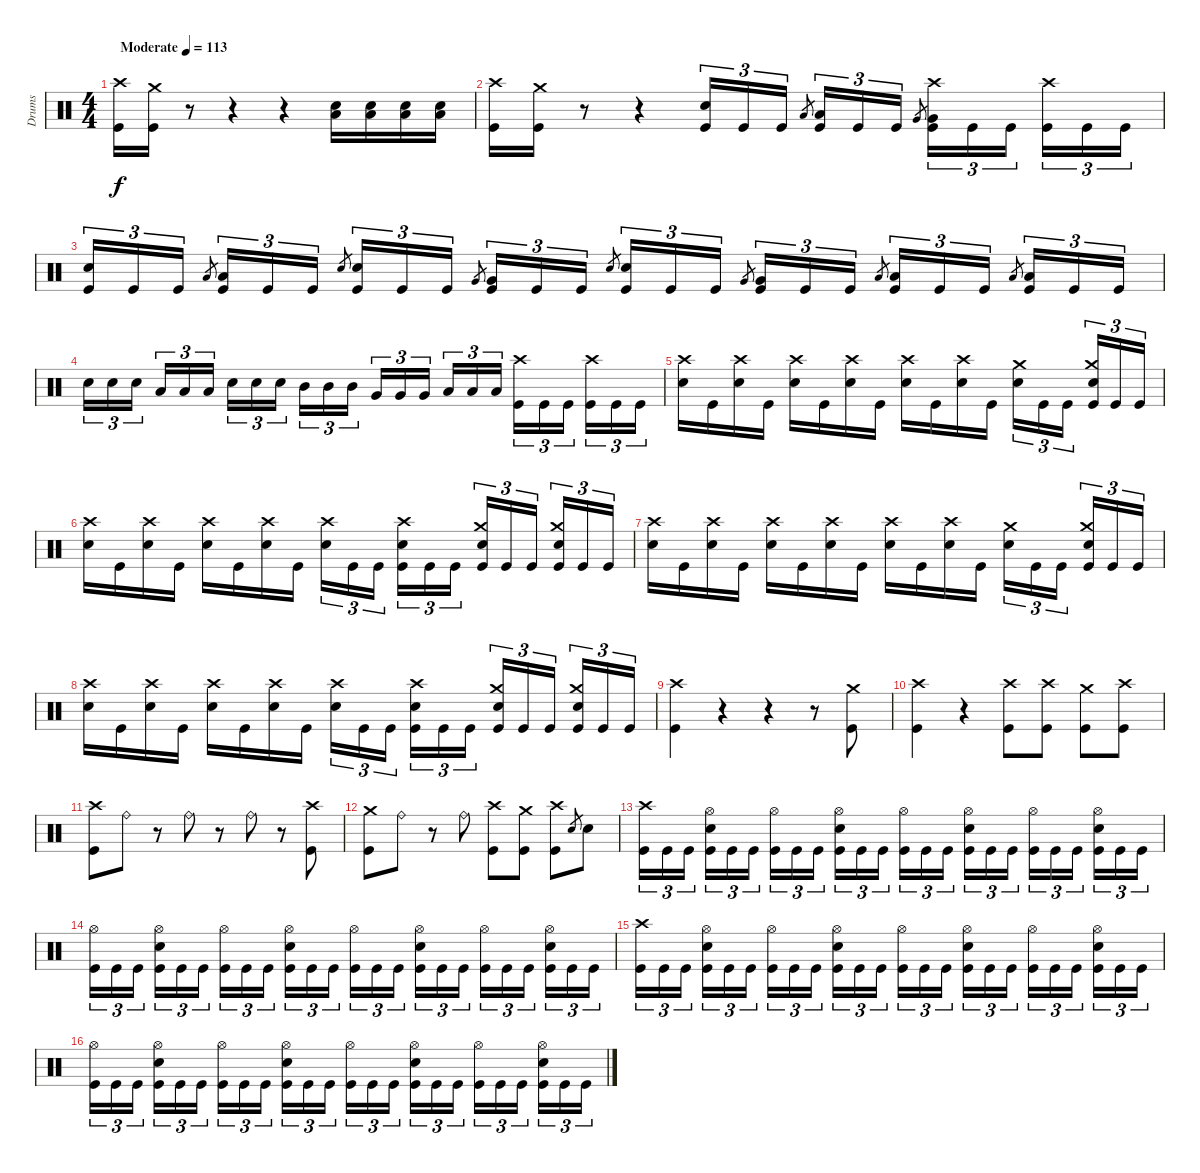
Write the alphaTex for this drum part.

\track ("Drums" "Drums") {instrument percussion}
\staff {score}
\articulation defaults
\ts (4 4)
\tempo (113 "Moderate")
\clef neutral
\ks c
("Crash high (hit)" "Kick (hit)").16{dy f} ("Crash medium (hit)" "Kick (hit)").16 r.8 r.4 r.4 ("Low Floor Tom (hit)" "Electric Snare (hit)").16 ("Low Floor Tom (hit)" "Electric Snare (hit)").16 ("Low Floor Tom (hit)" "Electric Snare (hit)").16 ("Low Floor Tom (hit)" "Electric Snare (hit)").16 |
("Crash high (hit)" "Kick (hit)").16 ("Crash medium (hit)" "Kick (hit)").16 r.8 r.4 ("Electric Snare (hit)" "Kick (hit)").16{tu (3 2)} "Kick (hit)".16{tu (3 2)} "Kick (hit)".16{tu (3 2)} "Low Tom (hit)".8{gr beam splitsecondary} ("Low Tom (hit)" "Kick (hit)").16{tu (3 2)} "Kick (hit)".16{tu (3 2)} "Kick (hit)".16{tu (3 2)} "Very Low Tom (hit)".8{gr} ("Crash high (hit)" "Very Low Tom (hit)" "Kick (hit)").16{tu (3 2)} "Kick (hit)".16{tu (3 2)} "Kick (hit)".16{tu (3 2) beam splitsecondary} ("Crash high (hit)" "Kick (hit)").16{tu (3 2)} "Kick (hit)".16{tu (3 2)} "Kick (hit)".16{tu (3 2)} |
("Electric Snare (hit)" "Kick (hit)").16{tu (3 2)} "Kick (hit)".16{tu (3 2)} "Kick (hit)".16{tu (3 2)} "Low Tom (hit)".8{gr beam splitsecondary} ("Low Tom (hit)" "Kick (hit)").16{tu (3 2)} "Kick (hit)".16{tu (3 2)} "Kick (hit)".16{tu (3 2)} "Electric Snare (hit)".8{gr} ("Electric Snare (hit)" "Kick (hit)").16{tu (3 2)} "Kick (hit)".16{tu (3 2)} "Kick (hit)".16{tu (3 2)} "Very Low Tom (hit)".8{gr beam splitsecondary} ("Very Low Tom (hit)" "Kick (hit)").16{tu (3 2)} "Kick (hit)".16{tu (3 2)} "Kick (hit)".16{tu (3 2)} "Electric Snare (hit)".8{gr} ("Electric Snare (hit)" "Kick (hit)").16{tu (3 2)} "Kick (hit)".16{tu (3 2)} "Kick (hit)".16{tu (3 2)} "Very Low Tom (hit)".8{gr beam splitsecondary} ("Very Low Tom (hit)" "Kick (hit)").16{tu (3 2)} "Kick (hit)".16{tu (3 2)} "Kick (hit)".16{tu (3 2)} "Low Floor Tom (hit)".8{gr} ("Low Floor Tom (hit)" "Kick (hit)").16{tu (3 2)} "Kick (hit)".16{tu (3 2)} "Kick (hit)".16{tu (3 2)} "Low Floor Tom (hit)".8{gr beam splitsecondary} ("Low Floor Tom (hit)" "Kick (hit)").16{tu (3 2)} "Kick (hit)".16{tu (3 2)} "Kick (hit)".16{tu (3 2)} |
"Electric Snare (hit)".16{tu (3 2)} "Electric Snare (hit)".16{tu (3 2)} "Electric Snare (hit)".16{tu (3 2) beam splitsecondary} "Low Tom (hit)".16{tu (3 2)} "Low Tom (hit)".16{tu (3 2)} "Low Tom (hit)".16{tu (3 2)} "Electric Snare (hit)".16{tu (3 2)} "Electric Snare (hit)".16{tu (3 2)} "Electric Snare (hit)".16{tu (3 2) beam splitsecondary} "Mid Tom (hit)".16{tu (3 2)} "Mid Tom (hit)".16{tu (3 2)} "Mid Tom (hit)".16{tu (3 2)} "Very Low Tom (hit)".16{tu (3 2)} "Very Low Tom (hit)".16{tu (3 2)} "Very Low Tom (hit)".16{tu (3 2) beam splitsecondary} "Low Floor Tom (hit)".16{tu (3 2)} "Low Floor Tom (hit)".16{tu (3 2)} "Low Floor Tom (hit)".16{tu (3 2)} ("Crash high (hit)" "Kick (hit)").16{tu (3 2)} "Kick (hit)".16{tu (3 2)} "Kick (hit)".16{tu (3 2) beam splitsecondary} ("Crash high (hit)" "Kick (hit)").16{tu (3 2)} "Kick (hit)".16{tu (3 2)} "Kick (hit)".16{tu (3 2)} |
("Crash high (hit)" "Electric Snare (hit)").16 "Kick (hit)".16 ("Crash high (hit)" "Electric Snare (hit)").16 "Kick (hit)".16 ("Crash high (hit)" "Electric Snare (hit)").16 "Kick (hit)".16 ("Crash high (hit)" "Electric Snare (hit)").16 "Kick (hit)".16 ("Crash high (hit)" "Electric Snare (hit)").16 "Kick (hit)".16 ("Crash high (hit)" "Electric Snare (hit)").16 "Kick (hit)".16 ("Crash medium (hit)" "Electric Snare (hit)").16{tu (3 2)} "Kick (hit)".16{tu (3 2)} "Kick (hit)".16{tu (3 2) beam splitsecondary} ("Crash medium (hit)" "Electric Snare (hit)" "Kick (hit)").16{tu (3 2)} "Kick (hit)".16{tu (3 2)} "Kick (hit)".16{tu (3 2)} |
("Crash high (hit)" "Electric Snare (hit)").16 "Kick (hit)".16 ("Crash high (hit)" "Electric Snare (hit)").16 "Kick (hit)".16 ("Crash high (hit)" "Electric Snare (hit)").16 "Kick (hit)".16 ("Crash high (hit)" "Electric Snare (hit)").16 "Kick (hit)".16 ("Crash high (hit)" "Electric Snare (hit)").16{tu (3 2)} "Kick (hit)".16{tu (3 2)} "Kick (hit)".16{tu (3 2) beam splitsecondary} ("Crash high (hit)" "Electric Snare (hit)" "Kick (hit)").16{tu (3 2)} "Kick (hit)".16{tu (3 2)} "Kick (hit)".16{tu (3 2)} ("Crash medium (hit)" "Electric Snare (hit)" "Kick (hit)").16{tu (3 2)} "Kick (hit)".16{tu (3 2)} "Kick (hit)".16{tu (3 2) beam splitsecondary} ("Crash medium (hit)" "Electric Snare (hit)" "Kick (hit)").16{tu (3 2)} "Kick (hit)".16{tu (3 2)} "Kick (hit)".16{tu (3 2)} |
("Crash high (hit)" "Electric Snare (hit)").16 "Kick (hit)".16 ("Crash high (hit)" "Electric Snare (hit)").16 "Kick (hit)".16 ("Crash high (hit)" "Electric Snare (hit)").16 "Kick (hit)".16 ("Crash high (hit)" "Electric Snare (hit)").16 "Kick (hit)".16 ("Crash high (hit)" "Electric Snare (hit)").16 "Kick (hit)".16 ("Crash high (hit)" "Electric Snare (hit)").16 "Kick (hit)".16 ("Crash medium (hit)" "Electric Snare (hit)").16{tu (3 2)} "Kick (hit)".16{tu (3 2)} "Kick (hit)".16{tu (3 2) beam splitsecondary} ("Crash medium (hit)" "Electric Snare (hit)" "Kick (hit)").16{tu (3 2)} "Kick (hit)".16{tu (3 2)} "Kick (hit)".16{tu (3 2)} |
("Crash high (hit)" "Electric Snare (hit)").16 "Kick (hit)".16 ("Crash high (hit)" "Electric Snare (hit)").16 "Kick (hit)".16 ("Crash high (hit)" "Electric Snare (hit)").16 "Kick (hit)".16 ("Crash high (hit)" "Electric Snare (hit)").16 "Kick (hit)".16 ("Crash high (hit)" "Electric Snare (hit)").16{tu (3 2)} "Kick (hit)".16{tu (3 2)} "Kick (hit)".16{tu (3 2) beam splitsecondary} ("Crash high (hit)" "Electric Snare (hit)" "Kick (hit)").16{tu (3 2)} "Kick (hit)".16{tu (3 2)} "Kick (hit)".16{tu (3 2)} ("Crash medium (hit)" "Electric Snare (hit)" "Kick (hit)").16{tu (3 2)} "Kick (hit)".16{tu (3 2)} "Kick (hit)".16{tu (3 2) beam splitsecondary} ("Crash medium (hit)" "Electric Snare (hit)" "Kick (hit)").16{tu (3 2)} "Kick (hit)".16{tu (3 2)} "Kick (hit)".16{tu (3 2)} |
("Crash high (hit)" "Kick (hit)").4 r.4 r.4 r.8 ("Crash medium (hit)" "Kick (hit)").8 |
("Crash high (hit)" "Kick (hit)").4 r.4 ("Crash high (hit)" "Kick (hit)").8 ("Crash high (hit)" "Kick (hit)").8 ("Crash medium (hit)" "Kick (hit)").8 ("Crash high (hit)" "Kick (hit)").8 |
("Crash high (hit)" "Kick (hit)").8 "Ride (bell)".8 r.8 "Ride (bell)".8 r.8 "Ride (bell)".8 r.8 ("Crash high (hit)" "Kick (hit)").8 |
("Crash medium (hit)" "Kick (hit)").8 "Ride (bell)".8 r.8 "Ride (bell)".8 ("Crash high (hit)" "Kick (hit)").8 ("Crash medium (hit)" "Kick (hit)").8 ("Crash high (hit)" "Kick (hit)").8 "Electric Snare (hit)".8{gr} "Electric Snare (hit)".8 |
("Crash high (hit)" "Kick (hit)").16{tu (3 2)} "Kick (hit)".16{tu (3 2)} "Kick (hit)".16{tu (3 2) beam splitsecondary} ("Hi-Hat (open)" "Electric Snare (hit)" "Kick (hit)").16{tu (3 2)} "Kick (hit)".16{tu (3 2)} "Kick (hit)".16{tu (3 2)} ("Hi-Hat (open)" "Kick (hit)").16{tu (3 2)} "Kick (hit)".16{tu (3 2)} "Kick (hit)".16{tu (3 2) beam splitsecondary} ("Hi-Hat (open)" "Electric Snare (hit)" "Kick (hit)").16{tu (3 2)} "Kick (hit)".16{tu (3 2)} "Kick (hit)".16{tu (3 2)} ("Hi-Hat (open)" "Kick (hit)").16{tu (3 2)} "Kick (hit)".16{tu (3 2)} "Kick (hit)".16{tu (3 2) beam splitsecondary} ("Hi-Hat (open)" "Electric Snare (hit)" "Kick (hit)").16{tu (3 2)} "Kick (hit)".16{tu (3 2)} "Kick (hit)".16{tu (3 2)} ("Hi-Hat (open)" "Kick (hit)").16{tu (3 2)} "Kick (hit)".16{tu (3 2)} "Kick (hit)".16{tu (3 2) beam splitsecondary} ("Hi-Hat (open)" "Electric Snare (hit)" "Kick (hit)").16{tu (3 2)} "Kick (hit)".16{tu (3 2)} "Kick (hit)".16{tu (3 2)} |
("Hi-Hat (open)" "Kick (hit)").16{tu (3 2)} "Kick (hit)".16{tu (3 2)} "Kick (hit)".16{tu (3 2) beam splitsecondary} ("Hi-Hat (open)" "Electric Snare (hit)" "Kick (hit)").16{tu (3 2)} "Kick (hit)".16{tu (3 2)} "Kick (hit)".16{tu (3 2)} ("Hi-Hat (open)" "Kick (hit)").16{tu (3 2)} "Kick (hit)".16{tu (3 2)} "Kick (hit)".16{tu (3 2) beam splitsecondary} ("Hi-Hat (open)" "Electric Snare (hit)" "Kick (hit)").16{tu (3 2)} "Kick (hit)".16{tu (3 2)} "Kick (hit)".16{tu (3 2)} ("Hi-Hat (open)" "Kick (hit)").16{tu (3 2)} "Kick (hit)".16{tu (3 2)} "Kick (hit)".16{tu (3 2) beam splitsecondary} ("Hi-Hat (open)" "Electric Snare (hit)" "Kick (hit)").16{tu (3 2)} "Kick (hit)".16{tu (3 2)} "Kick (hit)".16{tu (3 2)} ("Hi-Hat (open)" "Kick (hit)").16{tu (3 2)} "Kick (hit)".16{tu (3 2)} "Kick (hit)".16{tu (3 2) beam splitsecondary} ("Hi-Hat (open)" "Electric Snare (hit)" "Kick (hit)").16{tu (3 2)} "Kick (hit)".16{tu (3 2)} "Kick (hit)".16{tu (3 2)} |
("Crash high (hit)" "Kick (hit)").16{tu (3 2)} "Kick (hit)".16{tu (3 2)} "Kick (hit)".16{tu (3 2) beam splitsecondary} ("Hi-Hat (open)" "Electric Snare (hit)" "Kick (hit)").16{tu (3 2)} "Kick (hit)".16{tu (3 2)} "Kick (hit)".16{tu (3 2)} ("Hi-Hat (open)" "Kick (hit)").16{tu (3 2)} "Kick (hit)".16{tu (3 2)} "Kick (hit)".16{tu (3 2) beam splitsecondary} ("Hi-Hat (open)" "Electric Snare (hit)" "Kick (hit)").16{tu (3 2)} "Kick (hit)".16{tu (3 2)} "Kick (hit)".16{tu (3 2)} ("Hi-Hat (open)" "Kick (hit)").16{tu (3 2)} "Kick (hit)".16{tu (3 2)} "Kick (hit)".16{tu (3 2) beam splitsecondary} ("Hi-Hat (open)" "Electric Snare (hit)" "Kick (hit)").16{tu (3 2)} "Kick (hit)".16{tu (3 2)} "Kick (hit)".16{tu (3 2)} ("Hi-Hat (open)" "Kick (hit)").16{tu (3 2)} "Kick (hit)".16{tu (3 2)} "Kick (hit)".16{tu (3 2) beam splitsecondary} ("Hi-Hat (open)" "Electric Snare (hit)" "Kick (hit)").16{tu (3 2)} "Kick (hit)".16{tu (3 2)} "Kick (hit)".16{tu (3 2)} |
("Hi-Hat (open)" "Kick (hit)").16{tu (3 2)} "Kick (hit)".16{tu (3 2)} "Kick (hit)".16{tu (3 2) beam splitsecondary} ("Hi-Hat (open)" "Electric Snare (hit)" "Kick (hit)").16{tu (3 2)} "Kick (hit)".16{tu (3 2)} "Kick (hit)".16{tu (3 2)} ("Hi-Hat (open)" "Kick (hit)").16{tu (3 2)} "Kick (hit)".16{tu (3 2)} "Kick (hit)".16{tu (3 2) beam splitsecondary} ("Hi-Hat (open)" "Electric Snare (hit)" "Kick (hit)").16{tu (3 2)} "Kick (hit)".16{tu (3 2)} "Kick (hit)".16{tu (3 2)} ("Hi-Hat (open)" "Kick (hit)").16{tu (3 2)} "Kick (hit)".16{tu (3 2)} "Kick (hit)".16{tu (3 2) beam splitsecondary} ("Hi-Hat (open)" "Electric Snare (hit)" "Kick (hit)").16{tu (3 2)} "Kick (hit)".16{tu (3 2)} "Kick (hit)".16{tu (3 2)} ("Hi-Hat (open)" "Kick (hit)").16{tu (3 2)} "Kick (hit)".16{tu (3 2)} "Kick (hit)".16{tu (3 2) beam splitsecondary} ("Hi-Hat (open)" "Electric Snare (hit)" "Kick (hit)").16{tu (3 2)} "Kick (hit)".16{tu (3 2)} "Kick (hit)".16{tu (3 2)}
